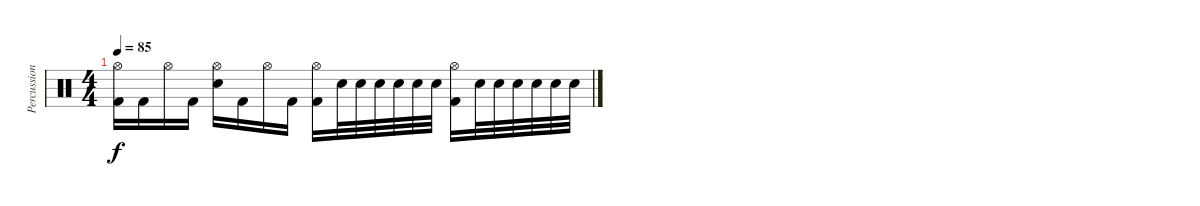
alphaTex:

\track ("Percussion" "Percussion") {instrument percussion}
\staff {score}
\articulation defaults
\ts (4 4)
\tempo 85
\clef neutral
\ks c
("Hi-Hat (open)" "Kick (hit) 2").16{dy f} "Kick (hit) 2".16 "Hi-Hat (open)".16 "Kick (hit) 2".16 ("Hi-Hat (open)" "Electric Snare (hit)").16 "Kick (hit) 2".16 "Hi-Hat (open)".16 "Kick (hit) 2".16 ("Hi-Hat (open)" "Kick (hit) 2").16 "Electric Snare (hit)".32 "Electric Snare (hit)".32 "Electric Snare (hit)".32 "Electric Snare (hit)".32 "Electric Snare (hit)".32 "Electric Snare (hit)".32 ("Hi-Hat (open)" "Kick (hit) 2").16 "Electric Snare (hit)".32 "Electric Snare (hit)".32 "Electric Snare (hit)".32 "Electric Snare (hit)".32 "Electric Snare (hit)".32 "Electric Snare (hit)".32
